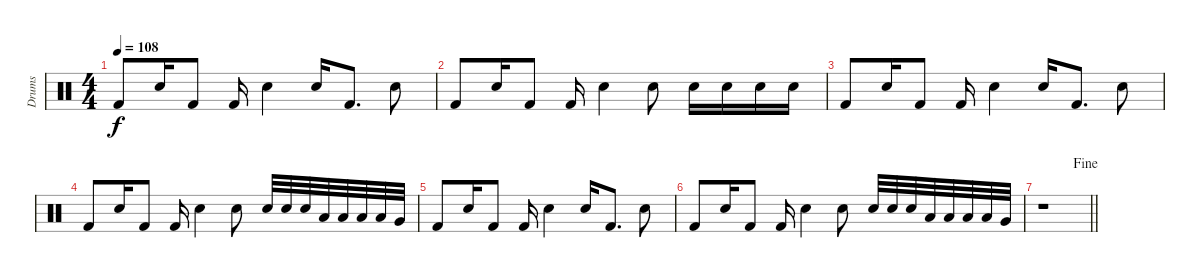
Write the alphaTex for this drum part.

\track ("Drums" "Drums") {instrument percussion}
\staff {score}
\articulation defaults
\ts (4 4)
\tempo 108
\clef neutral
\ks c "Kick (hit) 2".8{dy f} "Electric Snare (hit)".16 "Kick (hit) 2".8 "Kick (hit) 2".16 "Electric Snare (hit)".4 "Electric Snare (hit)".16 "Kick (hit) 2".8{d} "Electric Snare (hit)".8
|
"Kick (hit) 2".8 "Electric Snare (hit)".16 "Kick (hit) 2".8 "Kick (hit) 2".16 "Electric Snare (hit)".4 "Electric Snare (hit)".8 "Electric Snare (hit)".16 "Electric Snare (hit)".16 "Electric Snare (hit)".16 "Electric Snare (hit)".16 |
"Kick (hit) 2".8 "Electric Snare (hit)".16 "Kick (hit) 2".8 "Kick (hit) 2".16 "Electric Snare (hit)".4 "Electric Snare (hit)".16 "Kick (hit) 2".8{d} "Electric Snare (hit)".8 |
"Kick (hit) 2".8 "Electric Snare (hit)".16 "Kick (hit) 2".8 "Kick (hit) 2".16 "Electric Snare (hit)".4 "Electric Snare (hit)".8 "Electric Snare (hit)".32 "Electric Snare (hit)".32 "Electric Snare (hit)".32 "Low Tom (hit)".32 "Low Tom (hit)".32 "Low Tom (hit)".32 "Low Tom (hit)".32 "Very Low Tom (hit)".32 |
"Kick (hit) 2".8 "Electric Snare (hit)".16 "Kick (hit) 2".8 "Kick (hit) 2".16 "Electric Snare (hit)".4 "Electric Snare (hit)".16 "Kick (hit) 2".8{d} "Electric Snare (hit)".8 |
"Kick (hit) 2".8 "Electric Snare (hit)".16 "Kick (hit) 2".8 "Kick (hit) 2".16 "Electric Snare (hit)".4 "Electric Snare (hit)".8 "Electric Snare (hit)".32 "Electric Snare (hit)".32 "Electric Snare (hit)".32 "Low Tom (hit)".32 "Low Tom (hit)".32 "Low Tom (hit)".32 "Low Tom (hit)".32 "Very Low Tom (hit)".32 |
\jump fine
\barLineRight lightlight
r.1
